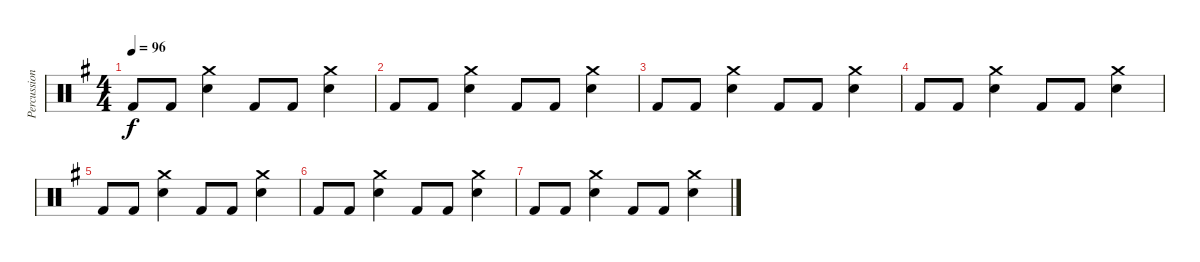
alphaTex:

\track ("Percussion" "Percussion") {instrument percussion}
\staff {score}
\articulation defaults
\ts (4 4)
\tempo 96
\clef neutral
\ks g "Kick (hit) 2".8{dy f} "Kick (hit) 2".8
("Crash medium (hit)" "Snare (hit) 2").4 "Kick (hit) 2".8 "Kick (hit) 2".8 ("Crash medium (hit)" "Snare (hit) 2").4 |
"Kick (hit) 2".8 "Kick (hit) 2".8 ("Crash medium (hit)" "Snare (hit) 2").4 "Kick (hit) 2".8 "Kick (hit) 2".8 ("Crash medium (hit)" "Snare (hit) 2").4 |
"Kick (hit) 2".8 "Kick (hit) 2".8 ("Crash medium (hit)" "Snare (hit) 2").4 "Kick (hit) 2".8 "Kick (hit) 2".8 ("Crash medium (hit)" "Snare (hit) 2").4 |
"Kick (hit) 2".8 "Kick (hit) 2".8 ("Crash medium (hit)" "Snare (hit) 2").4 "Kick (hit) 2".8 "Kick (hit) 2".8 ("Crash medium (hit)" "Snare (hit) 2").4 |
"Kick (hit) 2".8 "Kick (hit) 2".8 ("Crash medium (hit)" "Snare (hit) 2").4 "Kick (hit) 2".8 "Kick (hit) 2".8 ("Crash medium (hit)" "Snare (hit) 2").4 |
"Kick (hit) 2".8 "Kick (hit) 2".8 ("Crash medium (hit)" "Snare (hit) 2").4 "Kick (hit) 2".8 "Kick (hit) 2".8 ("Crash medium (hit)" "Snare (hit) 2").4 |
"Kick (hit) 2".8 "Kick (hit) 2".8 ("Crash medium (hit)" "Snare (hit) 2").4 "Kick (hit) 2".8 "Kick (hit) 2".8 ("Crash medium (hit)" "Snare (hit) 2").4
